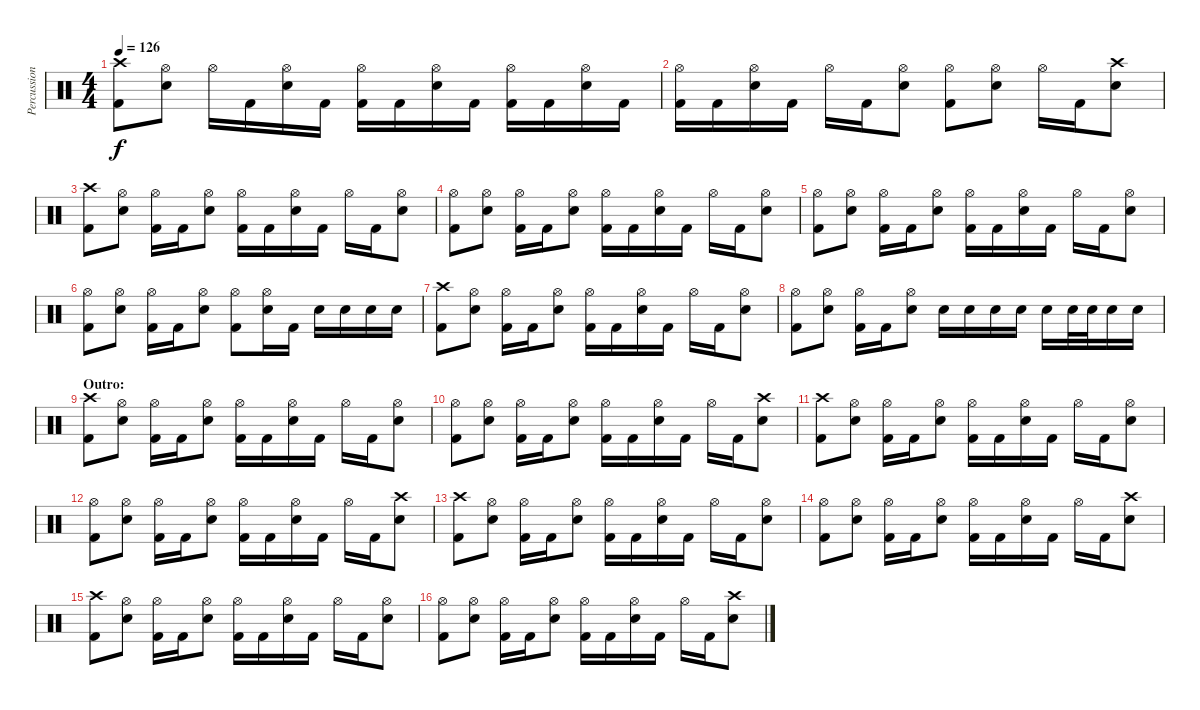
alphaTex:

\track ("Percussion" "Percussion") {instrument percussion}
\staff {score}
\articulation defaults
\ts (4 4)
\tempo 126
\clef neutral
\ks c
("Crash high (hit)" "Kick (hit) 2").8{dy f} ("Hi-Hat (open)" "Snare (hit) 2").8 "Hi-Hat (open)".16 "Kick (hit) 2".16 ("Hi-Hat (open)" "Snare (hit) 2").16 "Kick (hit) 2".16 ("Hi-Hat (open)" "Kick (hit) 2").16 "Kick (hit) 2".16 ("Hi-Hat (open)" "Snare (hit) 2").16 "Kick (hit) 2".16 ("Hi-Hat (open)" "Kick (hit) 2").16 "Kick (hit) 2".16 ("Hi-Hat (open)" "Snare (hit) 2").16 "Kick (hit) 2".16 |
("Hi-Hat (open)" "Kick (hit) 2").16 "Kick (hit) 2".16 ("Hi-Hat (open)" "Snare (hit) 2").16 "Kick (hit) 2".16 "Hi-Hat (open)".16 "Kick (hit) 2".16 ("Hi-Hat (open)" "Snare (hit) 2").8 ("Hi-Hat (open)" "Kick (hit) 2").8 ("Hi-Hat (open)" "Snare (hit) 2").8 "Hi-Hat (open)".16 "Kick (hit) 2".16 ("Crash high (hit)" "Snare (hit) 2").8 |
("Crash high (hit)" "Kick (hit) 2").8 ("Hi-Hat (open)" "Snare (hit) 2").8 ("Hi-Hat (open)" "Kick (hit) 2").16 "Kick (hit) 2".16 ("Hi-Hat (open)" "Snare (hit) 2").8 ("Hi-Hat (open)" "Kick (hit) 2").16 "Kick (hit) 2".16 ("Hi-Hat (open)" "Snare (hit) 2").16 "Kick (hit) 2".16 "Hi-Hat (open)".16 "Kick (hit) 2".16 ("Hi-Hat (open)" "Snare (hit) 2").8 |
("Hi-Hat (open)" "Kick (hit) 2").8 ("Hi-Hat (open)" "Snare (hit) 2").8 ("Hi-Hat (open)" "Kick (hit) 2").16 "Kick (hit) 2".16 ("Hi-Hat (open)" "Snare (hit) 2").8 ("Hi-Hat (open)" "Kick (hit) 2").16 "Kick (hit) 2".16 ("Hi-Hat (open)" "Snare (hit) 2").16 "Kick (hit) 2".16 "Hi-Hat (open)".16 "Kick (hit) 2".16 ("Hi-Hat (open)" "Snare (hit) 2").8 |
("Hi-Hat (open)" "Kick (hit) 2").8 ("Hi-Hat (open)" "Snare (hit) 2").8 ("Hi-Hat (open)" "Kick (hit) 2").16 "Kick (hit) 2".16 ("Hi-Hat (open)" "Snare (hit) 2").8 ("Hi-Hat (open)" "Kick (hit) 2").16 "Kick (hit) 2".16 ("Hi-Hat (open)" "Snare (hit) 2").16 "Kick (hit) 2".16 "Hi-Hat (open)".16 "Kick (hit) 2".16 ("Hi-Hat (open)" "Snare (hit) 2").8 |
("Hi-Hat (open)" "Kick (hit) 2").8 ("Hi-Hat (open)" "Snare (hit) 2").8 ("Hi-Hat (open)" "Kick (hit) 2").16 "Kick (hit) 2".16 ("Hi-Hat (open)" "Snare (hit) 2").8 ("Hi-Hat (open)" "Kick (hit) 2").8 ("Hi-Hat (open)" "Snare (hit) 2").16 "Kick (hit) 2".16 "Snare (hit) 2".16 "Snare (hit) 2".16 "Snare (hit) 2".16 "Snare (hit) 2".16 |
("Crash high (hit)" "Kick (hit) 2").8 ("Hi-Hat (open)" "Snare (hit) 2").8 ("Hi-Hat (open)" "Kick (hit) 2").16 "Kick (hit) 2".16 ("Hi-Hat (open)" "Snare (hit) 2").8 ("Hi-Hat (open)" "Kick (hit) 2").16 "Kick (hit) 2".16 ("Hi-Hat (open)" "Snare (hit) 2").16 "Kick (hit) 2".16 "Hi-Hat (open)".16 "Kick (hit) 2".16 ("Hi-Hat (open)" "Snare (hit) 2").8 |
("Hi-Hat (open)" "Kick (hit) 2").8 ("Hi-Hat (open)" "Snare (hit) 2").8 ("Hi-Hat (open)" "Kick (hit) 2").16 "Kick (hit) 2".16 ("Hi-Hat (open)" "Snare (hit) 2").8 "Snare (hit) 2".16 "Snare (hit) 2".16 "Snare (hit) 2".16 "Snare (hit) 2".16 "Snare (hit) 2".16 "Snare (hit) 2".32 "Snare (hit) 2".32 "Snare (hit) 2".16 "Snare (hit) 2".16 |
\section ("" "Outro:")
("Crash high (hit)" "Kick (hit) 2").8 ("Hi-Hat (open)" "Snare (hit) 2").8 ("Hi-Hat (open)" "Kick (hit) 2").16 "Kick (hit) 2".16 ("Hi-Hat (open)" "Snare (hit) 2").8 ("Hi-Hat (open)" "Kick (hit) 2").16 "Kick (hit) 2".16 ("Hi-Hat (open)" "Snare (hit) 2").16 "Kick (hit) 2".16 "Hi-Hat (open)".16 "Kick (hit) 2".16 ("Hi-Hat (open)" "Snare (hit) 2").8 |
("Hi-Hat (open)" "Kick (hit) 2").8 ("Hi-Hat (open)" "Snare (hit) 2").8 ("Hi-Hat (open)" "Kick (hit) 2").16 "Kick (hit) 2".16 ("Hi-Hat (open)" "Snare (hit) 2").8 ("Hi-Hat (open)" "Kick (hit) 2").16 "Kick (hit) 2".16 ("Hi-Hat (open)" "Snare (hit) 2").16 "Kick (hit) 2".16 "Hi-Hat (open)".16 "Kick (hit) 2".16 ("Crash high (hit)" "Snare (hit) 2").8 |
("Crash high (hit)" "Kick (hit) 2").8 ("Hi-Hat (open)" "Snare (hit) 2").8 ("Hi-Hat (open)" "Kick (hit) 2").16 "Kick (hit) 2".16 ("Hi-Hat (open)" "Snare (hit) 2").8 ("Hi-Hat (open)" "Kick (hit) 2").16 "Kick (hit) 2".16 ("Hi-Hat (open)" "Snare (hit) 2").16 "Kick (hit) 2".16 "Hi-Hat (open)".16 "Kick (hit) 2".16 ("Hi-Hat (open)" "Snare (hit) 2").8 |
("Hi-Hat (open)" "Kick (hit) 2").8 ("Hi-Hat (open)" "Snare (hit) 2").8 ("Hi-Hat (open)" "Kick (hit) 2").16 "Kick (hit) 2".16 ("Hi-Hat (open)" "Snare (hit) 2").8 ("Hi-Hat (open)" "Kick (hit) 2").16 "Kick (hit) 2".16 ("Hi-Hat (open)" "Snare (hit) 2").16 "Kick (hit) 2".16 "Hi-Hat (open)".16 "Kick (hit) 2".16 ("Crash high (hit)" "Snare (hit) 2").8 |
("Crash high (hit)" "Kick (hit) 2").8 ("Hi-Hat (open)" "Snare (hit) 2").8 ("Hi-Hat (open)" "Kick (hit) 2").16 "Kick (hit) 2".16 ("Hi-Hat (open)" "Snare (hit) 2").8 ("Hi-Hat (open)" "Kick (hit) 2").16 "Kick (hit) 2".16 ("Hi-Hat (open)" "Snare (hit) 2").16 "Kick (hit) 2".16 "Hi-Hat (open)".16 "Kick (hit) 2".16 ("Hi-Hat (open)" "Snare (hit) 2").8 |
("Hi-Hat (open)" "Kick (hit) 2").8 ("Hi-Hat (open)" "Snare (hit) 2").8 ("Hi-Hat (open)" "Kick (hit) 2").16 "Kick (hit) 2".16 ("Hi-Hat (open)" "Snare (hit) 2").8 ("Hi-Hat (open)" "Kick (hit) 2").16 "Kick (hit) 2".16 ("Hi-Hat (open)" "Snare (hit) 2").16 "Kick (hit) 2".16 "Hi-Hat (open)".16 "Kick (hit) 2".16 ("Crash high (hit)" "Snare (hit) 2").8 |
("Crash high (hit)" "Kick (hit) 2").8 ("Hi-Hat (open)" "Snare (hit) 2").8 ("Hi-Hat (open)" "Kick (hit) 2").16 "Kick (hit) 2".16 ("Hi-Hat (open)" "Snare (hit) 2").8 ("Hi-Hat (open)" "Kick (hit) 2").16 "Kick (hit) 2".16 ("Hi-Hat (open)" "Snare (hit) 2").16 "Kick (hit) 2".16 "Hi-Hat (open)".16 "Kick (hit) 2".16 ("Hi-Hat (open)" "Snare (hit) 2").8 |
("Hi-Hat (open)" "Kick (hit) 2").8 ("Hi-Hat (open)" "Snare (hit) 2").8 ("Hi-Hat (open)" "Kick (hit) 2").16 "Kick (hit) 2".16 ("Hi-Hat (open)" "Snare (hit) 2").8 ("Hi-Hat (open)" "Kick (hit) 2").16 "Kick (hit) 2".16 ("Hi-Hat (open)" "Snare (hit) 2").16 "Kick (hit) 2".16 "Hi-Hat (open)".16 "Kick (hit) 2".16 ("Crash high (hit)" "Snare (hit) 2").8
